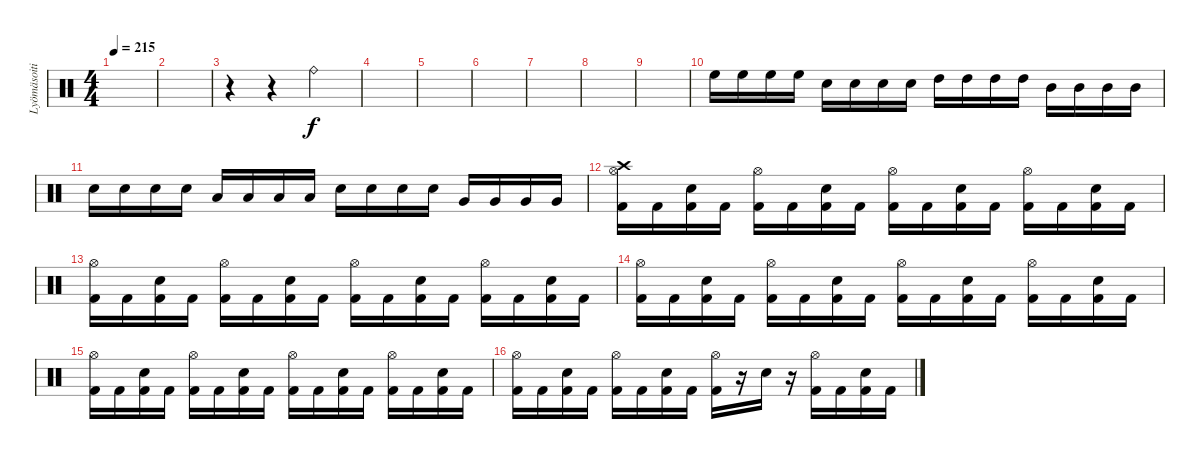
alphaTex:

\track ("Lyömäsoitin" "Lyömäsoiti") {instrument percussion}
\staff {score}
\articulation defaults
\ts (4 4)
\tempo 215
\clef neutral
\ks c
|
|
r.4 r.4 "Ride (bell)".2 |
|
|
|
|
|
|
"High Floor Tom (hit)".16 "High Floor Tom (hit)".16 "High Floor Tom (hit)".16 "High Floor Tom (hit)".16 "Electric Snare (hit)".16 "Electric Snare (hit)".16 "Electric Snare (hit)".16 "Electric Snare (hit)".16 "High Tom (hit)".16 "High Tom (hit)".16 "High Tom (hit)".16 "High Tom (hit)".16 "Mid Tom (hit)".16 "Mid Tom (hit)".16 "Mid Tom (hit)".16 "Mid Tom (hit)".16 |
"Electric Snare (hit)".16 "Electric Snare (hit)".16 "Electric Snare (hit)".16 "Electric Snare (hit)".16 "Low Tom (hit)".16 "Low Tom (hit)".16 "Low Tom (hit)".16 "Low Tom (hit)".16 "Electric Snare (hit)".16 "Electric Snare (hit)".16 "Electric Snare (hit)".16 "Electric Snare (hit)".16 "Very Low Tom (hit)".16 "Very Low Tom (hit)".16 "Very Low Tom (hit)".16 "Very Low Tom (hit)".16 |
("Crash high (hit)" "Hi-Hat (open)" "Kick (hit) 2").16 "Kick (hit) 2".16 ("Electric Snare (hit)" "Kick (hit) 2").16 "Kick (hit) 2".16 ("Hi-Hat (open)" "Kick (hit) 2").16 "Kick (hit) 2".16 ("Electric Snare (hit)" "Kick (hit) 2").16 "Kick (hit) 2".16 ("Hi-Hat (open)" "Kick (hit) 2").16 "Kick (hit) 2".16 ("Electric Snare (hit)" "Kick (hit) 2").16 "Kick (hit) 2".16 ("Hi-Hat (open)" "Kick (hit) 2").16 "Kick (hit) 2".16 ("Electric Snare (hit)" "Kick (hit) 2").16 "Kick (hit) 2".16 |
("Hi-Hat (open)" "Kick (hit) 2").16 "Kick (hit) 2".16 ("Electric Snare (hit)" "Kick (hit) 2").16 "Kick (hit) 2".16 ("Hi-Hat (open)" "Kick (hit) 2").16 "Kick (hit) 2".16 ("Electric Snare (hit)" "Kick (hit) 2").16 "Kick (hit) 2".16 ("Hi-Hat (open)" "Kick (hit) 2").16 "Kick (hit) 2".16 ("Electric Snare (hit)" "Kick (hit) 2").16 "Kick (hit) 2".16 ("Hi-Hat (open)" "Kick (hit) 2").16 "Kick (hit) 2".16 ("Electric Snare (hit)" "Kick (hit) 2").16 "Kick (hit) 2".16 |
("Hi-Hat (open)" "Kick (hit) 2").16 "Kick (hit) 2".16 ("Electric Snare (hit)" "Kick (hit) 2").16 "Kick (hit) 2".16 ("Hi-Hat (open)" "Kick (hit) 2").16 "Kick (hit) 2".16 ("Electric Snare (hit)" "Kick (hit) 2").16 "Kick (hit) 2".16 ("Hi-Hat (open)" "Kick (hit) 2").16 "Kick (hit) 2".16 ("Electric Snare (hit)" "Kick (hit) 2").16 "Kick (hit) 2".16 ("Hi-Hat (open)" "Kick (hit) 2").16 "Kick (hit) 2".16 ("Electric Snare (hit)" "Kick (hit) 2").16 "Kick (hit) 2".16 |
("Hi-Hat (open)" "Kick (hit) 2").16 "Kick (hit) 2".16 ("Electric Snare (hit)" "Kick (hit) 2").16 "Kick (hit) 2".16 ("Hi-Hat (open)" "Kick (hit) 2").16 "Kick (hit) 2".16 ("Electric Snare (hit)" "Kick (hit) 2").16 "Kick (hit) 2".16 ("Hi-Hat (open)" "Kick (hit) 2").16 "Kick (hit) 2".16 ("Electric Snare (hit)" "Kick (hit) 2").16 "Kick (hit) 2".16 ("Hi-Hat (open)" "Kick (hit) 2").16 "Kick (hit) 2".16 ("Electric Snare (hit)" "Kick (hit) 2").16 "Kick (hit) 2".16 |
("Hi-Hat (open)" "Kick (hit) 2").16 "Kick (hit) 2".16 ("Electric Snare (hit)" "Kick (hit) 2").16 "Kick (hit) 2".16 ("Hi-Hat (open)" "Kick (hit) 2").16 "Kick (hit) 2".16 ("Electric Snare (hit)" "Kick (hit) 2").16 "Kick (hit) 2".16 ("Hi-Hat (open)" "Kick (hit) 2").16 r.16 "Electric Snare (hit)".16 r.16 ("Hi-Hat (open)" "Kick (hit) 2").16 "Kick (hit) 2".16 ("Electric Snare (hit)" "Kick (hit) 2").16 "Kick (hit) 2".16
